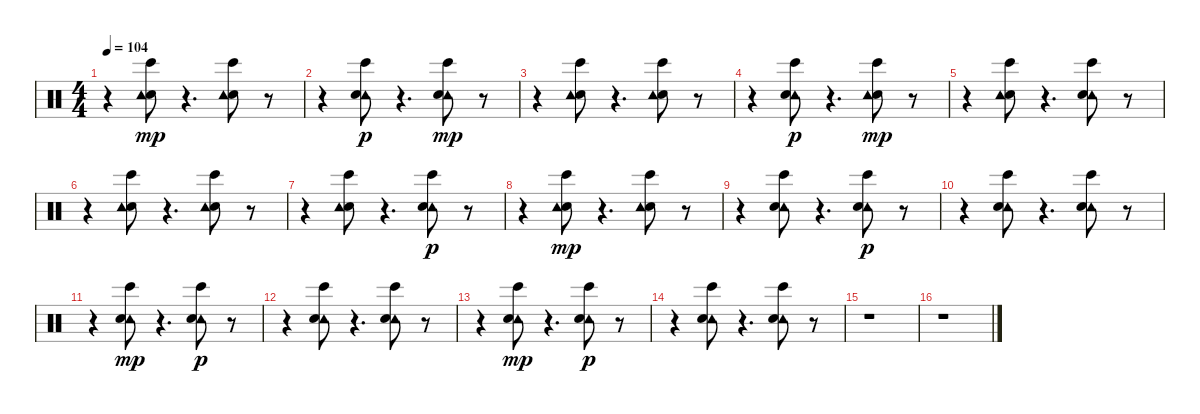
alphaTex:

\track "" {instrument percussion}
\staff {score}
\articulation defaults
\ts (4 4)
\tempo 104
\clef neutral
\ks c
r.4{dy p} ("Electric Snare (hit)" "Tambourine (hit)" "Bongo High (hit)").8{dy mp} r.4{d} ("Electric Snare (hit)" "Tambourine (hit)" "Bongo High (hit)").8 r.8 |
r.4 ("Bongo High (hit)" "Tambourine (hit)" "Electric Snare (hit)").8{dy p} r.4{d} ("Tambourine (hit)" "Electric Snare (hit)" "Bongo High (hit)").8{dy mp} r.8 |
r.4 ("Electric Snare (hit)" "Bongo High (hit)" "Tambourine (hit)").8 r.4{d} ("Electric Snare (hit)" "Bongo High (hit)" "Tambourine (hit)").8 r.8 |
r.4 ("Bongo High (hit)" "Tambourine (hit)" "Electric Snare (hit)").8{dy p} r.4{d} ("Bongo High (hit)" "Electric Snare (hit)" "Tambourine (hit)").8{dy mp} r.8 |
r.4 ("Bongo High (hit)" "Electric Snare (hit)" "Tambourine (hit)").8 r.4{d} ("Tambourine (hit)" "Electric Snare (hit)" "Bongo High (hit)").8 r.8 |
r.4 ("Electric Snare (hit)" "Tambourine (hit)" "Bongo High (hit)").8 r.4{d} ("Bongo High (hit)" "Electric Snare (hit)" "Tambourine (hit)").8 r.8 |
r.4 ("Electric Snare (hit)" "Bongo High (hit)" "Tambourine (hit)").8 r.4{d} ("Tambourine (hit)" "Bongo High (hit)" "Electric Snare (hit)").8{dy p} r.8 |
r.4 ("Electric Snare (hit)" "Tambourine (hit)" "Bongo High (hit)").8{dy mp} r.4{d} ("Electric Snare (hit)" "Tambourine (hit)" "Bongo High (hit)").8 r.8 |
r.4 ("Tambourine (hit)" "Electric Snare (hit)" "Bongo High (hit)").8 r.4{d} ("Tambourine (hit)" "Bongo High (hit)" "Electric Snare (hit)").8{dy p} r.8 |
r.4 ("Bongo High (hit)" "Tambourine (hit)" "Electric Snare (hit)").8 r.4{d} ("Tambourine (hit)" "Bongo High (hit)" "Electric Snare (hit)").8 r.8 |
r.4 ("Tambourine (hit)" "Electric Snare (hit)" "Bongo High (hit)").8{dy mp} r.4{d} ("Tambourine (hit)" "Bongo High (hit)" "Electric Snare (hit)").8{dy p} r.8 |
r.4 ("Bongo High (hit)" "Tambourine (hit)" "Electric Snare (hit)").8 r.4{d} ("Tambourine (hit)" "Bongo High (hit)" "Electric Snare (hit)").8 r.8 |
r.4 ("Tambourine (hit)" "Electric Snare (hit)" "Bongo High (hit)").8{dy mp} r.4{d} ("Tambourine (hit)" "Bongo High (hit)" "Electric Snare (hit)").8{dy p} r.8 |
r.4 ("Bongo High (hit)" "Tambourine (hit)" "Electric Snare (hit)").8 r.4{d} ("Tambourine (hit)" "Bongo High (hit)" "Electric Snare (hit)").8 r.8 |
r.1 |
r.1
